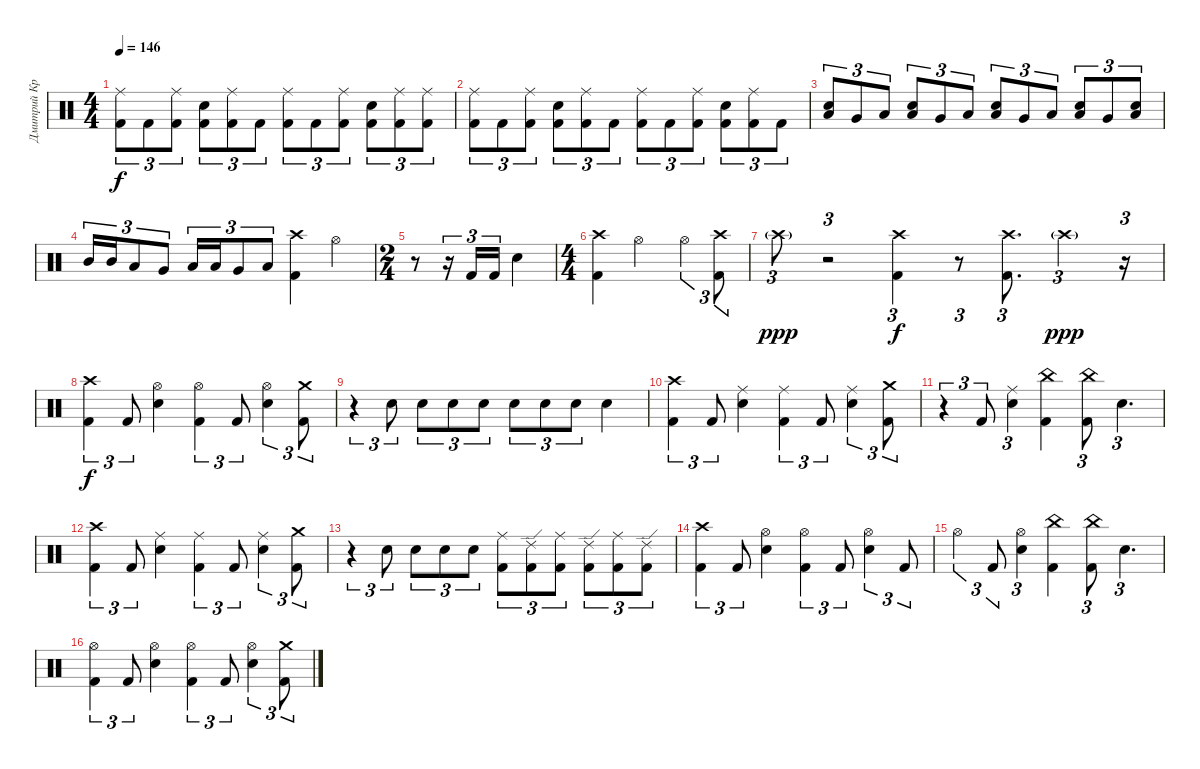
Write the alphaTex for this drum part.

\track ("Дмитрий Кривенков" "Дмитрий Кр") {instrument percussion}
\staff {score}
\articulation defaults
\ts (4 4)
\tempo 146
\clef neutral
\ks c
("Ride (middle)" "Kick (hit) 2").8{tu (3 2) dy f} "Kick (hit) 2".8{tu (3 2)} ("Ride (middle)" "Kick (hit) 2").8{tu (3 2)} ("Electric Snare (hit)" "Kick (hit) 2").8{tu (3 2)} ("Ride (middle)" "Kick (hit) 2").8{tu (3 2)} "Kick (hit) 2".8{tu (3 2)} ("Ride (middle)" "Kick (hit) 2").8{tu (3 2)} "Kick (hit) 2".8{tu (3 2)} ("Ride (middle)" "Kick (hit) 2").8{tu (3 2)} ("Electric Snare (hit)" "Kick (hit) 2").8{tu (3 2)} ("Ride (middle)" "Kick (hit) 2").8{tu (3 2)} ("Ride (middle)" "Kick (hit) 2").8{tu (3 2)} |
("Ride (middle)" "Kick (hit) 2").8{tu (3 2)} "Kick (hit) 2".8{tu (3 2)} ("Ride (middle)" "Kick (hit) 2").8{tu (3 2)} ("Electric Snare (hit)" "Kick (hit) 2").8{tu (3 2)} ("Ride (middle)" "Kick (hit) 2").8{tu (3 2)} "Kick (hit) 2".8{tu (3 2)} ("Ride (middle)" "Kick (hit) 2").8{tu (3 2)} "Kick (hit) 2".8{tu (3 2)} ("Ride (middle)" "Kick (hit) 2").8{tu (3 2)} ("Electric Snare (hit)" "Kick (hit) 2").8{tu (3 2)} ("Ride (middle)" "Kick (hit) 2").8{tu (3 2)} "Kick (hit) 2".8{tu (3 2)} |
("Low Tom (hit)" "Electric Snare (hit)").8{tu (3 2)} "Very Low Tom (hit)".8{tu (3 2)} "Low Floor Tom (hit)".8{tu (3 2)} ("Low Tom (hit)" "Electric Snare (hit)").8{tu (3 2)} "Very Low Tom (hit)".8{tu (3 2)} "Low Floor Tom (hit)".8{tu (3 2)} ("Low Tom (hit)" "Electric Snare (hit)").8{tu (3 2)} "Very Low Tom (hit)".8{tu (3 2)} "Low Floor Tom (hit)".8{tu (3 2)} ("Low Tom (hit)" "Electric Snare (hit)").8{tu (3 2)} "Very Low Tom (hit)".8{tu (3 2)} ("Electric Snare (hit)" "Low Floor Tom (hit)").8{tu (3 2)} |
"Mid Tom (hit)".16{tu (3 2)} "Mid Tom (hit)".16{tu (3 2)} "Low Tom (hit)".8{tu (3 2)} "Very Low Tom (hit)".8{tu (3 2)} "Low Tom (hit)".16{tu (3 2)} "Low Tom (hit)".16{tu (3 2)} "Very Low Tom (hit)".8{tu (3 2)} "Low Floor Tom (hit)".8{tu (3 2)} ("Crash high (hit)" "Kick (hit) 2").4 "Hi-Hat (open)".4 |
\ts (2 4)
r.8 r.16{tu (3 2)} "Kick (hit) 2".16{tu (3 2)} "Kick (hit) 2".16{tu (3 2)} "Electric Snare (hit)".4 |
\ts (4 4)
("Crash high (hit)" "Kick (hit) 2").4 "Hi-Hat (open)".2 "Hi-Hat (open)".4{tu (3 2)} ("Crash high (hit)" "Kick (hit) 2").8{tu (3 2)} |
"Crash high (hit)"{g}.8{tu (3 2) dy ppp} r.2{tu (3 2)} ("Crash high (hit)" "Kick (hit) 2").4{tu (3 2) dy f} r.8{tu (3 2)} ("Crash high (hit)" "Kick (hit) 2").8{d tu (3 2)} "Crash high (hit)"{g}.4{tu (3 2) dy ppp} r.16{tu (3 2)} |
("Crash high (hit)" "Kick (hit) 2").4{tu (3 2) dy f} "Kick (hit) 2".8{tu (3 2)} ("Hi-Hat (open)" "Electric Snare (hit)").4 ("Hi-Hat (open)" "Kick (hit) 2").4{tu (3 2)} "Kick (hit) 2".8{tu (3 2)} ("Hi-Hat (open)" "Electric Snare (hit)").4{tu (3 2)} ("Crash medium (hit)" "Kick (hit) 2").8{tu (3 2)} |
r.4{tu (3 2)} "Electric Snare (hit)".8{tu (3 2)} "Electric Snare (hit)".8{tu (3 2)} "Electric Snare (hit)".8{tu (3 2)} "Electric Snare (hit)".8{tu (3 2)} "Electric Snare (hit)".8{tu (3 2)} "Electric Snare (hit)".8{tu (3 2)} "Electric Snare (hit)".8{tu (3 2)} "Electric Snare (hit)".4 |
("Crash high (hit)" "Kick (hit) 2").4{tu (3 2)} "Kick (hit) 2".8{tu (3 2)} ("Ride (middle)" "Electric Snare (hit)").4 ("Ride (middle)" "Kick (hit) 2").4{tu (3 2)} "Kick (hit) 2".8{tu (3 2)} ("Ride (middle)" "Electric Snare (hit)").4{tu (3 2)} ("Crash medium (hit)" "Kick (hit) 2").8{tu (3 2)} |
r.4{tu (3 2)} "Kick (hit) 2".8{tu (3 2)} ("Ride (middle)" "Electric Snare (hit)").4{tu (3 2)} ("China (hit)" "Kick (hit) 2").4 ("China (hit)" "Kick (hit) 2").8{tu (3 2)} "Electric Snare (hit)".4{d tu (3 2)} |
("Crash high (hit)" "Kick (hit) 2").4{tu (3 2)} "Kick (hit) 2".8{tu (3 2)} ("Ride (middle)" "Electric Snare (hit)").4 ("Ride (middle)" "Kick (hit) 2").4{tu (3 2)} "Kick (hit) 2".8{tu (3 2)} ("Ride (middle)" "Electric Snare (hit)").4{tu (3 2)} ("Crash medium (hit)" "Kick (hit) 2").8{tu (3 2)} |
r.4{tu (3 2)} "Electric Snare (hit)".8{tu (3 2)} "Electric Snare (hit)".8{tu (3 2)} "Electric Snare (hit)".8{tu (3 2)} "Electric Snare (hit)".8{tu (3 2)} ("Ride (middle)" "Kick (hit) 2").8{tu (3 2)} ("Ride (edge) 2" "Kick (hit) 2").8{tu (3 2)} ("Ride (middle)" "Kick (hit) 2").8{tu (3 2)} ("Ride (edge) 2" "Kick (hit) 2").8{tu (3 2)} ("Ride (middle)" "Kick (hit) 2").8{tu (3 2)} ("Ride (edge) 2" "Kick (hit) 2").8{tu (3 2)} |
("Crash high (hit)" "Kick (hit) 2").4{tu (3 2)} "Kick (hit) 2".8{tu (3 2)} ("Hi-Hat (open)" "Electric Snare (hit)").4 ("Hi-Hat (open)" "Kick (hit) 2").4{tu (3 2)} "Kick (hit) 2".8{tu (3 2)} ("Hi-Hat (open)" "Electric Snare (hit)").4{tu (3 2)} "Kick (hit) 2".8{tu (3 2)} |
"Hi-Hat (open)".4{tu (3 2)} "Kick (hit) 2".8{tu (3 2)} ("Hi-Hat (open)" "Electric Snare (hit)").4{tu (3 2)} ("China (hit)" "Kick (hit) 2").4 ("China (hit)" "Kick (hit) 2").8{tu (3 2)} "Electric Snare (hit)".4{d tu (3 2)} |
("Hi-Hat (open)" "Kick (hit) 2").4{tu (3 2)} "Kick (hit) 2".8{tu (3 2)} ("Hi-Hat (open)" "Electric Snare (hit)").4 ("Hi-Hat (open)" "Kick (hit) 2").4{tu (3 2)} "Kick (hit) 2".8{tu (3 2)} ("Hi-Hat (open)" "Electric Snare (hit)").4{tu (3 2)} ("Crash medium (hit)" "Kick (hit) 2").8{tu (3 2)}
